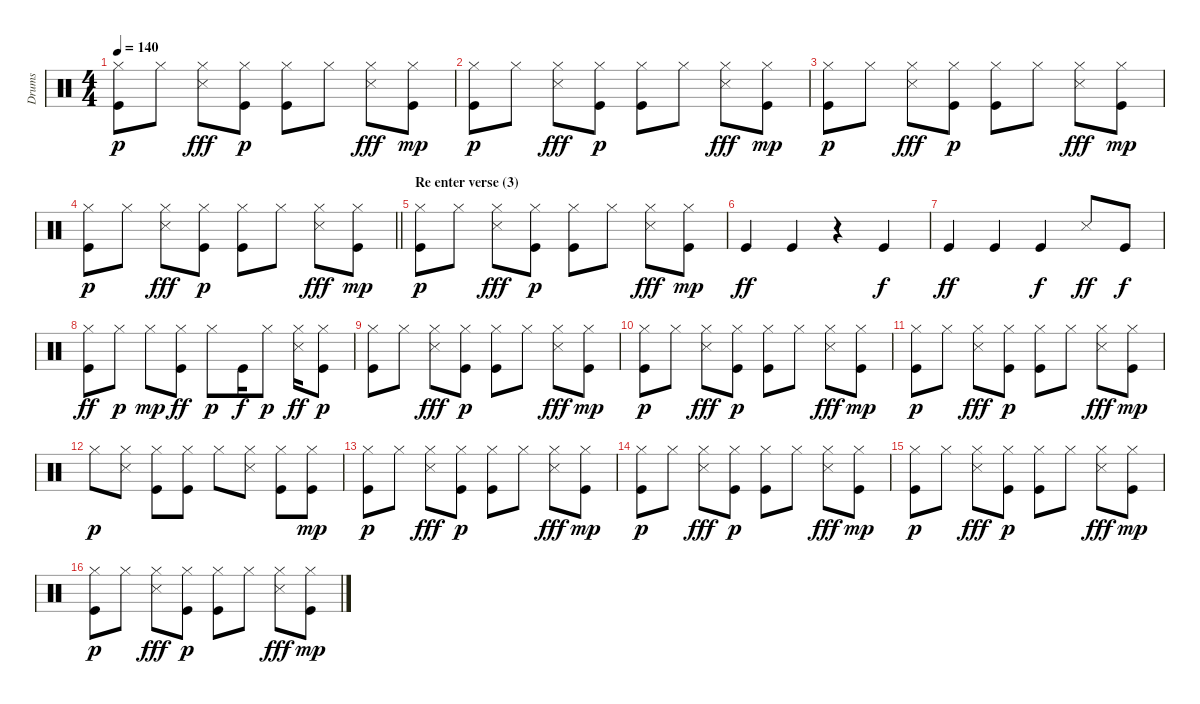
\track ("Drums" "Drums") {instrument percussion}
\staff {score}
\articulation defaults
\ts (4 4)
\tempo 140
\clef neutral
\ks c
("Kick (hit)" "Hi-Hat (closed)").8{dy p} "Hi-Hat (closed)".8 ("Hi-Hat (closed)" "Snare (side stick) 3").8{dy fff} ("Kick (hit)" "Hi-Hat (closed)").8{dy p} ("Kick (hit)" "Hi-Hat (closed)").8 "Hi-Hat (closed)".8 ("Hi-Hat (closed)" "Snare (side stick) 3").8{dy fff} ("Hi-Hat (closed)" "Kick (hit)").8{dy mp} |
("Kick (hit)" "Hi-Hat (closed)").8{dy p} "Hi-Hat (closed)".8 ("Hi-Hat (closed)" "Snare (side stick) 3").8{dy fff} ("Kick (hit)" "Hi-Hat (closed)").8{dy p} ("Kick (hit)" "Hi-Hat (closed)").8 "Hi-Hat (closed)".8 ("Hi-Hat (closed)" "Snare (side stick) 3").8{dy fff} ("Hi-Hat (closed)" "Kick (hit)").8{dy mp} |
("Kick (hit)" "Hi-Hat (closed)").8{dy p} "Hi-Hat (closed)".8 ("Hi-Hat (closed)" "Snare (side stick) 3").8{dy fff} ("Kick (hit)" "Hi-Hat (closed)").8{dy p} ("Kick (hit)" "Hi-Hat (closed)").8 "Hi-Hat (closed)".8 ("Hi-Hat (closed)" "Snare (side stick) 3").8{dy fff} ("Hi-Hat (closed)" "Kick (hit)").8{dy mp} |
\barLineRight lightlight
("Kick (hit)" "Hi-Hat (closed)").8{dy p} "Hi-Hat (closed)".8 ("Hi-Hat (closed)" "Snare (side stick) 3").8{dy fff} ("Kick (hit)" "Hi-Hat (closed)").8{dy p} ("Kick (hit)" "Hi-Hat (closed)").8 "Hi-Hat (closed)".8 ("Hi-Hat (closed)" "Snare (side stick) 3").8{dy fff} ("Hi-Hat (closed)" "Kick (hit)").8{dy mp} |
\section ("" "Re enter verse (3)")
("Kick (hit)" "Hi-Hat (closed)").8{dy p} "Hi-Hat (closed)".8 ("Hi-Hat (closed)" "Snare (side stick) 3").8{dy fff} ("Kick (hit)" "Hi-Hat (closed)").8{dy p} ("Kick (hit)" "Hi-Hat (closed)").8 "Hi-Hat (closed)".8 ("Hi-Hat (closed)" "Snare (side stick) 3").8{dy fff} ("Hi-Hat (closed)" "Kick (hit)").8{dy mp} |
"Kick (hit)".4{dy ff} "Kick (hit)".4 r.4 "Kick (hit)".4{dy f} |
"Kick (hit)".4{dy ff} "Kick (hit)".4 "Kick (hit)".4{dy f} "Snare (side stick) 3".8{dy ff} "Kick (hit)".8{dy f} |
("Hi-Hat (closed)" "Kick (hit)").8{dy ff} "Hi-Hat (closed)".8{dy p} "Hi-Hat (closed)".8{dy mp} ("Hi-Hat (closed)" "Kick (hit)").8{dy ff} "Hi-Hat (closed)".8{dy p} "Kick (hit)".16{dy f} "Hi-Hat (closed)".8{dy p} ("Hi-Hat (closed)" "Snare (side stick) 3").16{dy ff} ("Hi-Hat (closed)" "Kick (hit)").8{dy p} |
("Kick (hit)" "Hi-Hat (closed)").8 "Hi-Hat (closed)".8 ("Hi-Hat (closed)" "Snare (side stick) 3").8{dy fff} ("Kick (hit)" "Hi-Hat (closed)").8{dy p} ("Kick (hit)" "Hi-Hat (closed)").8 "Hi-Hat (closed)".8 ("Hi-Hat (closed)" "Snare (side stick) 3").8{dy fff} ("Hi-Hat (closed)" "Kick (hit)").8{dy mp} |
("Kick (hit)" "Hi-Hat (closed)").8{dy p} "Hi-Hat (closed)".8 ("Hi-Hat (closed)" "Snare (side stick) 3").8{dy fff} ("Kick (hit)" "Hi-Hat (closed)").8{dy p} ("Kick (hit)" "Hi-Hat (closed)").8 "Hi-Hat (closed)".8 ("Hi-Hat (closed)" "Snare (side stick) 3").8{dy fff} ("Hi-Hat (closed)" "Kick (hit)").8{dy mp} |
("Kick (hit)" "Hi-Hat (closed)").8{dy p} "Hi-Hat (closed)".8 ("Hi-Hat (closed)" "Snare (side stick) 3").8{dy fff} ("Kick (hit)" "Hi-Hat (closed)").8{dy p} ("Kick (hit)" "Hi-Hat (closed)").8 "Hi-Hat (closed)".8 ("Hi-Hat (closed)" "Snare (side stick) 3").8{dy fff} ("Hi-Hat (closed)" "Kick (hit)").8{dy mp} |
"Hi-Hat (closed)".8{dy p} ("Snare (side stick) 3" "Hi-Hat (closed)").8 ("Hi-Hat (closed)" "Kick (hit)").8 ("Hi-Hat (closed)" "Kick (hit)").8 "Hi-Hat (closed)".8 ("Snare (side stick) 3" "Hi-Hat (closed)").8 ("Kick (hit)" "Hi-Hat (closed)").8 ("Hi-Hat (closed)" "Kick (hit)").8{dy mp} |
("Kick (hit)" "Hi-Hat (closed)").8{dy p} "Hi-Hat (closed)".8 ("Hi-Hat (closed)" "Snare (side stick) 3").8{dy fff} ("Kick (hit)" "Hi-Hat (closed)").8{dy p} ("Kick (hit)" "Hi-Hat (closed)").8 "Hi-Hat (closed)".8 ("Hi-Hat (closed)" "Snare (side stick) 3").8{dy fff} ("Hi-Hat (closed)" "Kick (hit)").8{dy mp} |
("Kick (hit)" "Hi-Hat (closed)").8{dy p} "Hi-Hat (closed)".8 ("Hi-Hat (closed)" "Snare (side stick) 3").8{dy fff} ("Kick (hit)" "Hi-Hat (closed)").8{dy p} ("Kick (hit)" "Hi-Hat (closed)").8 "Hi-Hat (closed)".8 ("Hi-Hat (closed)" "Snare (side stick) 3").8{dy fff} ("Hi-Hat (closed)" "Kick (hit)").8{dy mp} |
("Kick (hit)" "Hi-Hat (closed)").8{dy p} "Hi-Hat (closed)".8 ("Hi-Hat (closed)" "Snare (side stick) 3").8{dy fff} ("Kick (hit)" "Hi-Hat (closed)").8{dy p} ("Kick (hit)" "Hi-Hat (closed)").8 "Hi-Hat (closed)".8 ("Hi-Hat (closed)" "Snare (side stick) 3").8{dy fff} ("Hi-Hat (closed)" "Kick (hit)").8{dy mp} |
("Kick (hit)" "Hi-Hat (closed)").8{dy p} "Hi-Hat (closed)".8 ("Hi-Hat (closed)" "Snare (side stick) 3").8{dy fff} ("Kick (hit)" "Hi-Hat (closed)").8{dy p} ("Kick (hit)" "Hi-Hat (closed)").8 "Hi-Hat (closed)".8 ("Hi-Hat (closed)" "Snare (side stick) 3").8{dy fff} ("Hi-Hat (closed)" "Kick (hit)").8{dy mp}
